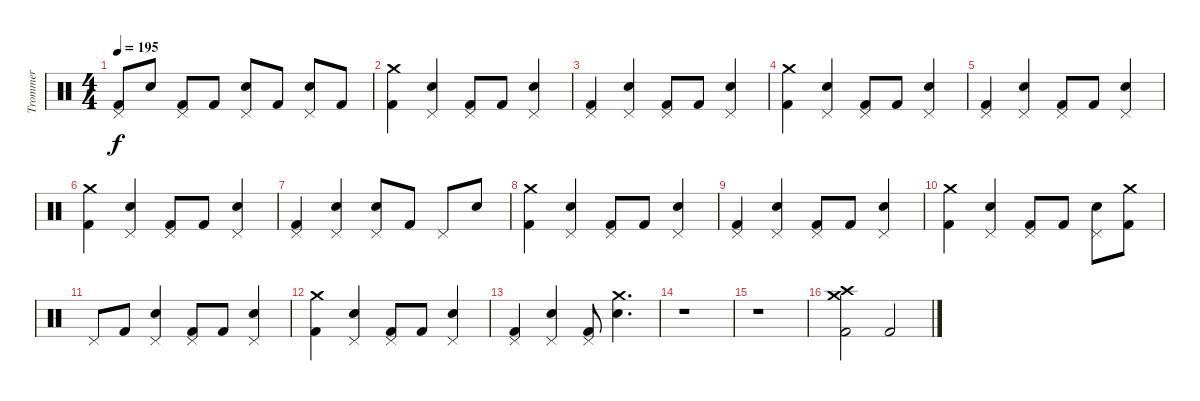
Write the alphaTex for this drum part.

\track ("Trommer" "Trommer") {instrument percussion}
\staff {score}
\articulation defaults
\ts (4 4)
\tempo 195
\clef neutral
\ks c
("Pedal Hi-Hat (hit)" "Kick (hit) 2").8{dy f} "Snare (hit) 2".8 ("Pedal Hi-Hat (hit)" "Kick (hit) 2").8 "Kick (hit) 2".8 ("Pedal Hi-Hat (hit)" "Snare (hit) 2").8 "Kick (hit) 2".8 ("Pedal Hi-Hat (hit)" "Snare (hit) 2").8 "Kick (hit) 2".8 |
("Crash medium (hit)" "Kick (hit) 2").4 ("Pedal Hi-Hat (hit)" "Snare (hit) 2").4 ("Kick (hit) 2" "Pedal Hi-Hat (hit)").8 "Kick (hit) 2".8 ("Pedal Hi-Hat (hit)" "Snare (hit) 2").4 |
("Pedal Hi-Hat (hit)" "Kick (hit) 2").4 ("Pedal Hi-Hat (hit)" "Snare (hit) 2").4 ("Kick (hit) 2" "Pedal Hi-Hat (hit)").8 "Kick (hit) 2".8 ("Pedal Hi-Hat (hit)" "Snare (hit) 2").4 |
("Crash medium (hit)" "Kick (hit) 2").4 ("Pedal Hi-Hat (hit)" "Snare (hit) 2").4 ("Kick (hit) 2" "Pedal Hi-Hat (hit)").8 "Kick (hit) 2".8 ("Pedal Hi-Hat (hit)" "Snare (hit) 2").4 |
("Pedal Hi-Hat (hit)" "Kick (hit) 2").4 ("Pedal Hi-Hat (hit)" "Snare (hit) 2").4 ("Pedal Hi-Hat (hit)" "Kick (hit) 2").8 "Kick (hit) 2".8 ("Pedal Hi-Hat (hit)" "Snare (hit) 2").4 |
("Kick (hit) 2" "Crash medium (hit)").4 ("Pedal Hi-Hat (hit)" "Snare (hit) 2").4 ("Pedal Hi-Hat (hit)" "Kick (hit) 2").8 "Kick (hit) 2".8 ("Pedal Hi-Hat (hit)" "Snare (hit) 2").4 |
("Pedal Hi-Hat (hit)" "Kick (hit) 2").4 ("Pedal Hi-Hat (hit)" "Snare (hit) 2").4 ("Pedal Hi-Hat (hit)" "Snare (hit) 2").8 "Kick (hit) 2".8 "Pedal Hi-Hat (hit)".8 "Snare (hit) 2".8 |
("Crash medium (hit)" "Kick (hit) 2").4 ("Pedal Hi-Hat (hit)" "Snare (hit) 2").4 ("Pedal Hi-Hat (hit)" "Kick (hit) 2").8 "Kick (hit) 2".8 ("Pedal Hi-Hat (hit)" "Snare (hit) 2").4 |
("Pedal Hi-Hat (hit)" "Kick (hit) 2").4 ("Pedal Hi-Hat (hit)" "Snare (hit) 2").4 ("Pedal Hi-Hat (hit)" "Kick (hit) 2").8 "Kick (hit) 2".8 ("Pedal Hi-Hat (hit)" "Snare (hit) 2").4 |
("Crash medium (hit)" "Kick (hit) 2").4 ("Pedal Hi-Hat (hit)" "Snare (hit) 2").4 ("Pedal Hi-Hat (hit)" "Kick (hit) 2").8 "Kick (hit) 2".8 ("Pedal Hi-Hat (hit)" "Snare (hit) 2").8 ("Crash medium (hit)" "Kick (hit) 2").8 |
"Pedal Hi-Hat (hit)".8 "Kick (hit) 2".8 ("Pedal Hi-Hat (hit)" "Snare (hit) 2").4 ("Pedal Hi-Hat (hit)" "Kick (hit) 2").8 "Kick (hit) 2".8 ("Pedal Hi-Hat (hit)" "Snare (hit) 2").4 |
("Kick (hit) 2" "Crash medium (hit)").4 ("Pedal Hi-Hat (hit)" "Snare (hit) 2").4 ("Pedal Hi-Hat (hit)" "Kick (hit) 2").8 "Kick (hit) 2".8 ("Pedal Hi-Hat (hit)" "Snare (hit) 2").4 |
("Pedal Hi-Hat (hit)" "Kick (hit) 2").4 ("Pedal Hi-Hat (hit)" "Snare (hit) 2").4 ("Pedal Hi-Hat (hit)" "Kick (hit) 2").8 ("Crash medium (hit)" "Snare (hit) 2").4{d} |
r.1 |
r.1 |
("Kick (hit) 2" "Crash high (hit)" "Crash medium (hit)").2 "Kick (hit) 2".2
